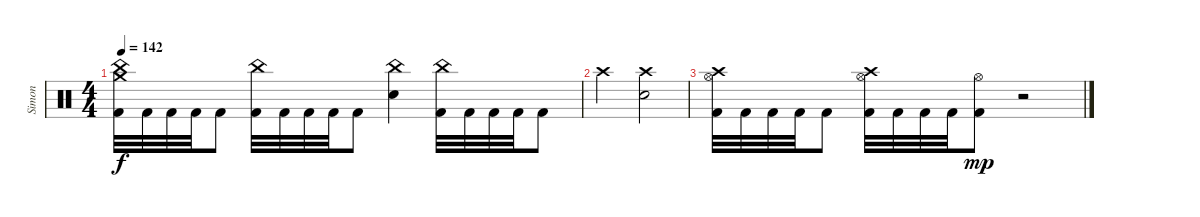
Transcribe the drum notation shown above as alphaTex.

\track ("Simon" "Simon") {instrument percussion}
\staff {score}
\articulation defaults
\ts (4 4)
\tempo 142
\clef neutral
\ks c
("China (hit)" "Crash medium (hit)" "Kick (hit) 2").32{dy f} "Kick (hit) 2".32 "Kick (hit) 2".32 "Kick (hit) 2".32 "Kick (hit) 2".8 ("China (hit)" "Kick (hit) 2").32 "Kick (hit) 2".32 "Kick (hit) 2".32 "Kick (hit) 2".32 "Kick (hit) 2".8 ("China (hit)" "Electric Snare (hit)").4 ("China (hit)" "Kick (hit) 2").32 "Kick (hit) 2".32 "Kick (hit) 2".32 "Kick (hit) 2".32 "Kick (hit) 2".8 |
"Crash high (hit)".2 ("Crash high (hit)" "Electric Snare (hit)").2 |
("Hi-Hat (open)" "Crash high (hit)" "Kick (hit) 2").32 "Kick (hit) 2".32 "Kick (hit) 2".32 "Kick (hit) 2".32 "Kick (hit) 2".8 ("Hi-Hat (open)" "Crash high (hit)" "Kick (hit) 2").32 "Kick (hit) 2".32 "Kick (hit) 2".32 "Kick (hit) 2".32 ("Hi-Hat (open)" "Kick (hit) 2").8{dy mp} r.2
